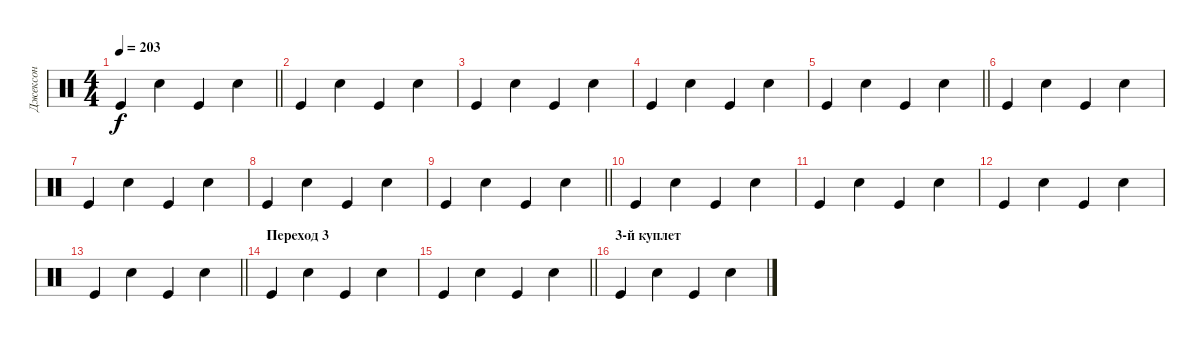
\track ("Джексон" "Джексон") {instrument percussion}
\staff {score}
\articulation defaults
\ts (4 4)
\tempo 203
\clef neutral
\barLineRight lightlight
\ks c "Kick (hit)".4{dy f} "Snare (hit) 2".4 "Kick (hit)".4 "Snare (hit) 2".4
|
"Kick (hit)".4 "Snare (hit) 2".4 "Kick (hit)".4 "Snare (hit) 2".4 |
"Kick (hit)".4 "Snare (hit) 2".4 "Kick (hit)".4 "Snare (hit) 2".4 |
"Kick (hit)".4 "Snare (hit) 2".4 "Kick (hit)".4 "Snare (hit) 2".4 |
\barLineRight lightlight "Kick (hit)".4 "Snare (hit) 2".4 "Kick (hit)".4 "Snare (hit) 2".4
|
"Kick (hit)".4 "Snare (hit) 2".4 "Kick (hit)".4 "Snare (hit) 2".4 |
"Kick (hit)".4 "Snare (hit) 2".4 "Kick (hit)".4 "Snare (hit) 2".4 |
"Kick (hit)".4 "Snare (hit) 2".4 "Kick (hit)".4 "Snare (hit) 2".4 |
\barLineRight lightlight "Kick (hit)".4 "Snare (hit) 2".4 "Kick (hit)".4 "Snare (hit) 2".4
|
"Kick (hit)".4 "Snare (hit) 2".4 "Kick (hit)".4 "Snare (hit) 2".4 |
"Kick (hit)".4 "Snare (hit) 2".4 "Kick (hit)".4 "Snare (hit) 2".4 |
"Kick (hit)".4 "Snare (hit) 2".4 "Kick (hit)".4 "Snare (hit) 2".4 |
\barLineRight lightlight "Kick (hit)".4 "Snare (hit) 2".4 "Kick (hit)".4 "Snare (hit) 2".4
|
\section ("" "Переход 3")
"Kick (hit)".4 "Snare (hit) 2".4 "Kick (hit)".4 "Snare (hit) 2".4 |
\barLineRight lightlight "Kick (hit)".4 "Snare (hit) 2".4 "Kick (hit)".4 "Snare (hit) 2".4
|
\section ("" "3-й куплет")
"Kick (hit)".4 "Snare (hit) 2".4 "Kick (hit)".4 "Snare (hit) 2".4
